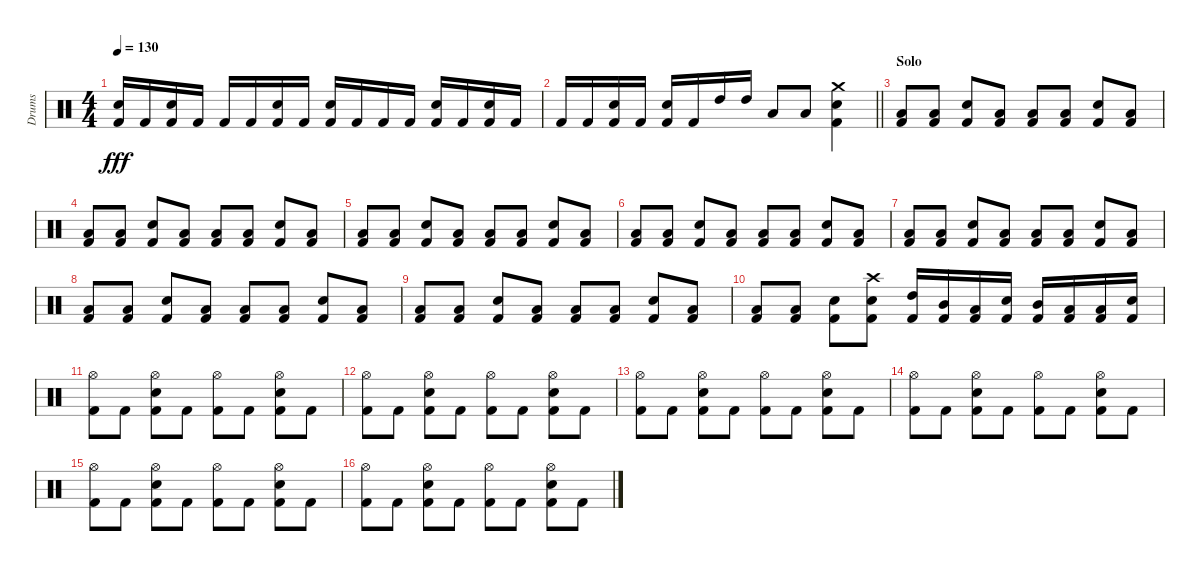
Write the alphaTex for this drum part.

\track ("Drums" "Drums") {instrument percussion}
\staff {score}
\articulation defaults
\ts (4 4)
\tempo 130
\clef neutral
\ks c
("Snare (hit) 2" "Kick (hit) 2").16{dy fff} "Kick (hit) 2".16 ("Snare (hit) 2" "Kick (hit) 2").16 "Kick (hit) 2".16 "Kick (hit) 2".16 "Kick (hit) 2".16 ("Snare (hit) 2" "Kick (hit) 2").16 "Kick (hit) 2".16 ("Snare (hit) 2" "Kick (hit) 2").16 "Kick (hit) 2".16 "Kick (hit) 2".16 "Kick (hit) 2".16 ("Snare (hit) 2" "Kick (hit) 2").16 "Kick (hit) 2".16 ("Snare (hit) 2" "Kick (hit) 2").16 "Kick (hit) 2".16 |
\barLineRight lightlight "Kick (hit) 2".16 "Kick (hit) 2".16
("Snare (hit) 2" "Kick (hit) 2").16 "Kick (hit) 2".16 ("Snare (hit) 2" "Kick (hit) 2").16 "Kick (hit) 2".16 "High Tom (hit)".16 "High Tom (hit)".16 "Low Tom (hit)".8 "Low Tom (hit)".8 ("Crash medium (hit)" "Snare (hit) 2" "Kick (hit) 2").4 |
\section ("" "Solo")
("Low Floor Tom (hit)" "Kick (hit) 2").8 ("Low Floor Tom (hit)" "Kick (hit) 2").8 ("Snare (hit) 2" "Kick (hit) 2").8 ("Low Floor Tom (hit)" "Kick (hit) 2").8 ("Low Floor Tom (hit)" "Kick (hit) 2").8 ("Low Floor Tom (hit)" "Kick (hit) 2").8 ("Snare (hit) 2" "Kick (hit) 2").8 ("Low Floor Tom (hit)" "Kick (hit) 2").8 |
("Low Floor Tom (hit)" "Kick (hit) 2").8 ("Low Floor Tom (hit)" "Kick (hit) 2").8 ("Snare (hit) 2" "Kick (hit) 2").8 ("Low Floor Tom (hit)" "Kick (hit) 2").8 ("Low Floor Tom (hit)" "Kick (hit) 2").8 ("Low Floor Tom (hit)" "Kick (hit) 2").8 ("Snare (hit) 2" "Kick (hit) 2").8 ("Low Floor Tom (hit)" "Kick (hit) 2").8 |
("Low Floor Tom (hit)" "Kick (hit) 2").8 ("Low Floor Tom (hit)" "Kick (hit) 2").8 ("Snare (hit) 2" "Kick (hit) 2").8 ("Low Floor Tom (hit)" "Kick (hit) 2").8 ("Low Floor Tom (hit)" "Kick (hit) 2").8 ("Low Floor Tom (hit)" "Kick (hit) 2").8 ("Snare (hit) 2" "Kick (hit) 2").8 ("Low Floor Tom (hit)" "Kick (hit) 2").8 |
("Low Floor Tom (hit)" "Kick (hit) 2").8 ("Low Floor Tom (hit)" "Kick (hit) 2").8 ("Snare (hit) 2" "Kick (hit) 2").8 ("Low Floor Tom (hit)" "Kick (hit) 2").8 ("Low Floor Tom (hit)" "Kick (hit) 2").8 ("Low Floor Tom (hit)" "Kick (hit) 2").8 ("Snare (hit) 2" "Kick (hit) 2").8 ("Low Floor Tom (hit)" "Kick (hit) 2").8 |
("Low Floor Tom (hit)" "Kick (hit) 2").8 ("Low Floor Tom (hit)" "Kick (hit) 2").8 ("Snare (hit) 2" "Kick (hit) 2").8 ("Low Floor Tom (hit)" "Kick (hit) 2").8 ("Low Floor Tom (hit)" "Kick (hit) 2").8 ("Low Floor Tom (hit)" "Kick (hit) 2").8 ("Snare (hit) 2" "Kick (hit) 2").8 ("Low Floor Tom (hit)" "Kick (hit) 2").8 |
("Low Floor Tom (hit)" "Kick (hit) 2").8 ("Low Floor Tom (hit)" "Kick (hit) 2").8 ("Snare (hit) 2" "Kick (hit) 2").8 ("Low Floor Tom (hit)" "Kick (hit) 2").8 ("Low Floor Tom (hit)" "Kick (hit) 2").8 ("Low Floor Tom (hit)" "Kick (hit) 2").8 ("Snare (hit) 2" "Kick (hit) 2").8 ("Low Floor Tom (hit)" "Kick (hit) 2").8 |
("Low Floor Tom (hit)" "Kick (hit) 2").8 ("Low Floor Tom (hit)" "Kick (hit) 2").8 ("Snare (hit) 2" "Kick (hit) 2").8 ("Low Floor Tom (hit)" "Kick (hit) 2").8 ("Low Floor Tom (hit)" "Kick (hit) 2").8 ("Low Floor Tom (hit)" "Kick (hit) 2").8 ("Snare (hit) 2" "Kick (hit) 2").8 ("Low Floor Tom (hit)" "Kick (hit) 2").8 |
("Low Floor Tom (hit)" "Kick (hit) 2").8 ("Low Floor Tom (hit)" "Kick (hit) 2").8 ("Snare (hit) 2" "Kick (hit) 2").8 ("Crash high (hit)" "Snare (hit) 2" "Kick (hit) 2").8 ("High Tom (hit)" "Kick (hit) 2").16 ("Mid Tom (hit)" "Kick (hit) 2").16 ("Low Tom (hit)" "Kick (hit) 2").16 ("Snare (hit) 2" "Kick (hit) 2").16 ("Mid Tom (hit)" "Kick (hit) 2").16 ("Low Tom (hit)" "Kick (hit) 2").16 ("Low Floor Tom (hit)" "Kick (hit) 2").16 ("Electric Snare (hit)" "Kick (hit) 2").16 |
("Hi-Hat (open)" "Kick (hit) 2").8 "Kick (hit) 2".8 ("Hi-Hat (open)" "Snare (hit) 2" "Kick (hit) 2").8 "Kick (hit) 2".8 ("Hi-Hat (open)" "Kick (hit) 2").8 "Kick (hit) 2".8 ("Hi-Hat (open)" "Snare (hit) 2" "Kick (hit) 2").8 "Kick (hit) 2".8 |
("Hi-Hat (open)" "Kick (hit) 2").8 "Kick (hit) 2".8 ("Hi-Hat (open)" "Snare (hit) 2" "Kick (hit) 2").8 "Kick (hit) 2".8 ("Hi-Hat (open)" "Kick (hit) 2").8 "Kick (hit) 2".8 ("Hi-Hat (open)" "Snare (hit) 2" "Kick (hit) 2").8 "Kick (hit) 2".8 |
("Hi-Hat (open)" "Kick (hit) 2").8 "Kick (hit) 2".8 ("Hi-Hat (open)" "Snare (hit) 2" "Kick (hit) 2").8 "Kick (hit) 2".8 ("Hi-Hat (open)" "Kick (hit) 2").8 "Kick (hit) 2".8 ("Hi-Hat (open)" "Snare (hit) 2" "Kick (hit) 2").8 "Kick (hit) 2".8 |
("Hi-Hat (open)" "Kick (hit) 2").8 "Kick (hit) 2".8 ("Hi-Hat (open)" "Snare (hit) 2" "Kick (hit) 2").8 "Kick (hit) 2".8 ("Hi-Hat (open)" "Kick (hit) 2").8 "Kick (hit) 2".8 ("Hi-Hat (open)" "Snare (hit) 2" "Kick (hit) 2").8 "Kick (hit) 2".8 |
("Hi-Hat (open)" "Kick (hit) 2").8 "Kick (hit) 2".8 ("Hi-Hat (open)" "Snare (hit) 2" "Kick (hit) 2").8 "Kick (hit) 2".8 ("Hi-Hat (open)" "Kick (hit) 2").8 "Kick (hit) 2".8 ("Hi-Hat (open)" "Snare (hit) 2" "Kick (hit) 2").8 "Kick (hit) 2".8 |
("Hi-Hat (open)" "Kick (hit) 2").8 "Kick (hit) 2".8 ("Hi-Hat (open)" "Snare (hit) 2" "Kick (hit) 2").8 "Kick (hit) 2".8 ("Hi-Hat (open)" "Kick (hit) 2").8 "Kick (hit) 2".8 ("Hi-Hat (open)" "Snare (hit) 2" "Kick (hit) 2").8 "Kick (hit) 2".8
